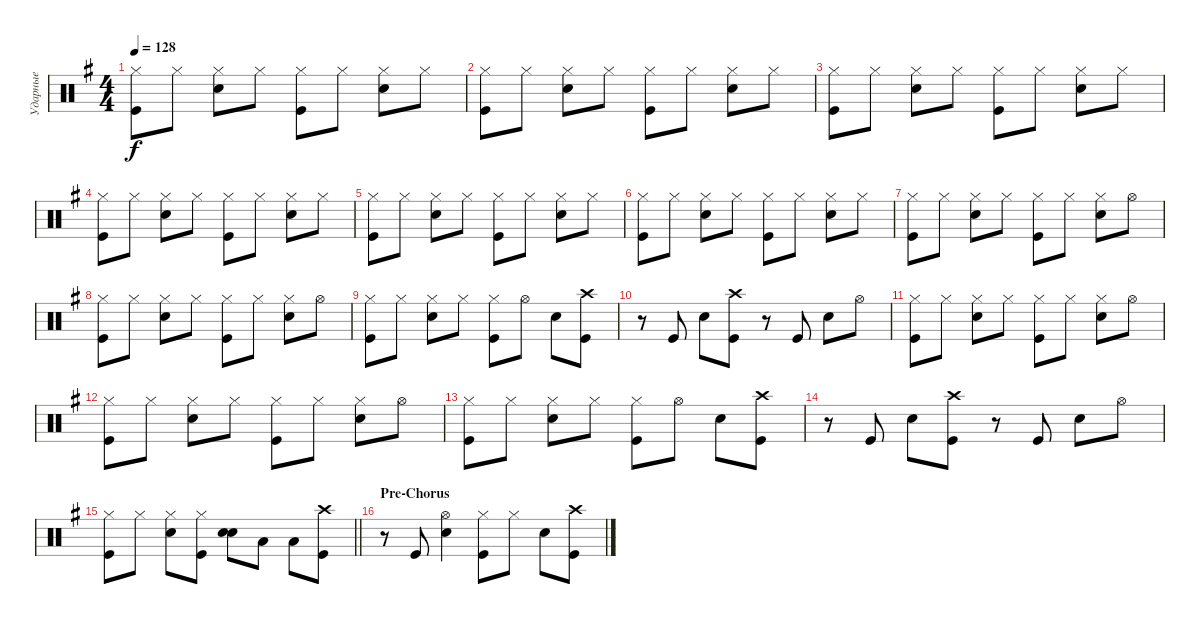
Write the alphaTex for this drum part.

\track ("Ударные" "Ударные") {instrument percussion}
\staff {score}
\articulation defaults
\ts (4 4)
\tempo 128
\clef neutral
\ks eminor
("Hi-Hat (closed)" "Kick (hit)").8{dy f} "Hi-Hat (closed)".8 ("Hi-Hat (closed)" "Snare (hit) 2").8 "Hi-Hat (closed)".8 ("Hi-Hat (closed)" "Kick (hit)").8 "Hi-Hat (closed)".8 ("Hi-Hat (closed)" "Snare (hit) 2").8 "Hi-Hat (closed)".8 |
("Hi-Hat (closed)" "Kick (hit)").8 "Hi-Hat (closed)".8 ("Hi-Hat (closed)" "Snare (hit) 2").8 "Hi-Hat (closed)".8 ("Hi-Hat (closed)" "Kick (hit)").8 "Hi-Hat (closed)".8 ("Hi-Hat (closed)" "Snare (hit) 2").8 "Hi-Hat (closed)".8 |
("Hi-Hat (closed)" "Kick (hit)").8 "Hi-Hat (closed)".8 ("Hi-Hat (closed)" "Snare (hit) 2").8 "Hi-Hat (closed)".8 ("Hi-Hat (closed)" "Kick (hit)").8 "Hi-Hat (closed)".8 ("Hi-Hat (closed)" "Snare (hit) 2").8 "Hi-Hat (closed)".8 |
("Hi-Hat (closed)" "Kick (hit)").8 "Hi-Hat (closed)".8 ("Hi-Hat (closed)" "Snare (hit) 2").8 "Hi-Hat (closed)".8 ("Hi-Hat (closed)" "Kick (hit)").8 "Hi-Hat (closed)".8 ("Hi-Hat (closed)" "Snare (hit) 2").8 "Hi-Hat (closed)".8 |
("Hi-Hat (closed)" "Kick (hit)").8 "Hi-Hat (closed)".8 ("Hi-Hat (closed)" "Snare (hit) 2").8 "Hi-Hat (closed)".8 ("Hi-Hat (closed)" "Kick (hit)").8 "Hi-Hat (closed)".8 ("Hi-Hat (closed)" "Snare (hit) 2").8 "Hi-Hat (closed)".8 |
("Hi-Hat (closed)" "Kick (hit)").8 "Hi-Hat (closed)".8 ("Hi-Hat (closed)" "Snare (hit) 2").8 "Hi-Hat (closed)".8 ("Hi-Hat (closed)" "Kick (hit)").8 "Hi-Hat (closed)".8 ("Hi-Hat (closed)" "Snare (hit) 2").8 "Hi-Hat (closed)".8 |
("Hi-Hat (closed)" "Kick (hit)").8 "Hi-Hat (closed)".8 ("Hi-Hat (closed)" "Snare (hit) 2").8 "Hi-Hat (closed)".8 ("Hi-Hat (closed)" "Kick (hit)").8 "Hi-Hat (closed)".8 ("Hi-Hat (closed)" "Snare (hit) 2").8 "Hi-Hat (open)".8 |
("Hi-Hat (closed)" "Kick (hit)").8 "Hi-Hat (closed)".8 ("Hi-Hat (closed)" "Snare (hit) 2").8 "Hi-Hat (closed)".8 ("Hi-Hat (closed)" "Kick (hit)").8 "Hi-Hat (closed)".8 ("Hi-Hat (closed)" "Snare (hit) 2").8 "Hi-Hat (open)".8 |
("Hi-Hat (closed)" "Kick (hit)").8 "Hi-Hat (closed)".8 ("Hi-Hat (closed)" "Snare (hit) 2").8 "Hi-Hat (closed)".8 ("Hi-Hat (closed)" "Kick (hit)").8 "Hi-Hat (open)".8 "Snare (hit) 2".8 ("Kick (hit)" "Crash high (hit)").8 |
r.8 "Kick (hit)".8 "Snare (hit) 2".8 ("Kick (hit)" "Crash high (hit)").8 r.8 "Kick (hit)".8 "Snare (hit) 2".8 "Hi-Hat (open)".8 |
("Hi-Hat (closed)" "Kick (hit)").8 "Hi-Hat (closed)".8 ("Hi-Hat (closed)" "Snare (hit) 2").8 "Hi-Hat (closed)".8 ("Hi-Hat (closed)" "Kick (hit)").8 "Hi-Hat (closed)".8 ("Hi-Hat (closed)" "Snare (hit) 2").8 "Hi-Hat (open)".8 |
("Hi-Hat (closed)" "Kick (hit)").8 "Hi-Hat (closed)".8 ("Hi-Hat (closed)" "Snare (hit) 2").8 "Hi-Hat (closed)".8 ("Hi-Hat (closed)" "Kick (hit)").8 "Hi-Hat (closed)".8 ("Hi-Hat (closed)" "Snare (hit) 2").8 "Hi-Hat (open)".8 |
("Hi-Hat (closed)" "Kick (hit)").8 "Hi-Hat (closed)".8 ("Hi-Hat (closed)" "Snare (hit) 2").8 "Hi-Hat (closed)".8 ("Hi-Hat (closed)" "Kick (hit)").8 "Hi-Hat (open)".8 "Snare (hit) 2".8 ("Kick (hit)" "Crash high (hit)").8 |
r.8 "Kick (hit)".8 "Snare (hit) 2".8 ("Kick (hit)" "Crash high (hit)").8 r.8 "Kick (hit)".8 "Snare (hit) 2".8 "Hi-Hat (open)".8 |
\barLineRight lightlight
("Hi-Hat (closed)" "Kick (hit)").8 "Hi-Hat (closed)".8 ("Snare (hit) 2" "Hi-Hat (closed)").8 ("Hi-Hat (closed)" "Kick (hit)").8 ("Snare (hit) 2" "Snare (hit) 2").8{bd 240} "Low Tom (hit)".8 "Low Tom (hit)".8 ("Kick (hit)" "Crash high (hit)").8 |
\section ("" "Pre-Chorus")
r.8 "Kick (hit)".8 ("Snare (hit) 2" "Hi-Hat (open)").4 ("Kick (hit)" "Hi-Hat (closed)").8 "Hi-Hat (closed)".8 "Snare (hit) 2".8 ("Kick (hit)" "Crash high (hit)").8
